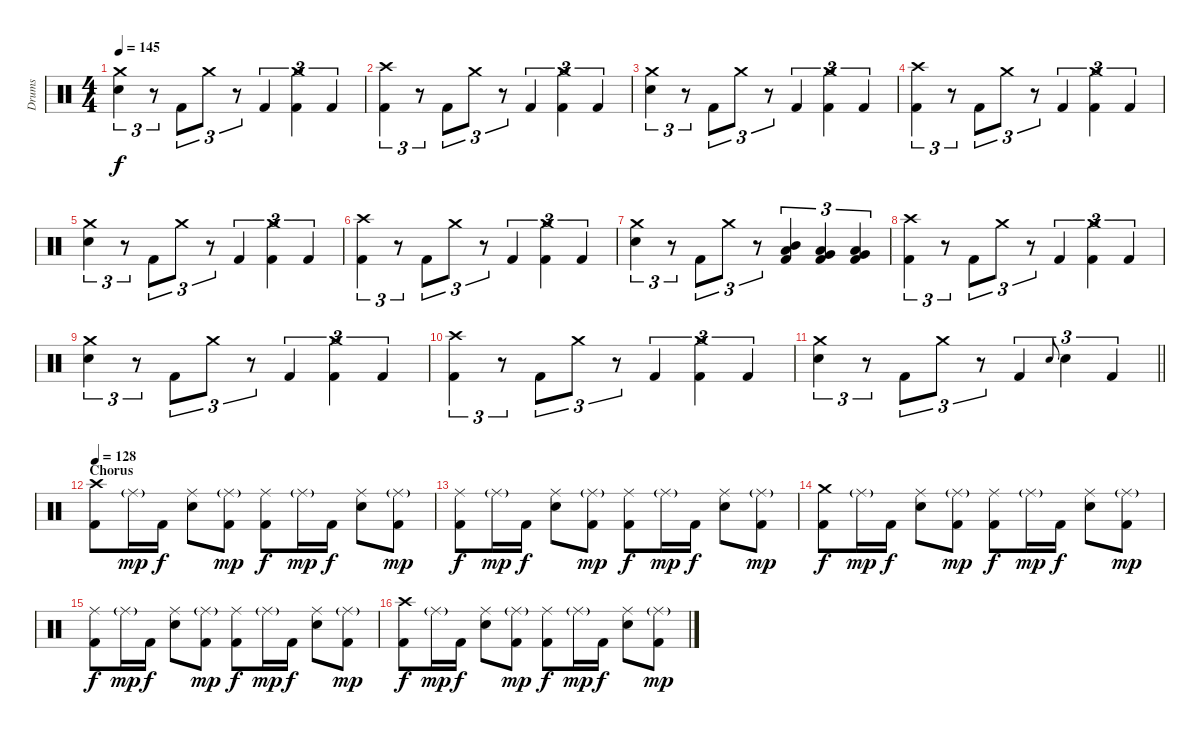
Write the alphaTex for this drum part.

\track ("Drums" "Drums") {instrument percussion}
\staff {score}
\articulation defaults
\ts (4 4)
\tempo 145
\clef neutral
\ks c
("Crash medium (hit)" "Electric Snare (hit)").4{tu (3 2) dy f} r.8{tu (3 2)} "Kick (hit) 2".8{tu (3 2)} "Crash medium (hit)".8{tu (3 2)} r.8{tu (3 2)} "Kick (hit) 2".4{tu (3 2)} ("Crash medium (hit)" "Kick (hit) 2").4{tu (3 2)} "Kick (hit) 2".4{tu (3 2)} |
("Crash high (hit)" "Kick (hit) 2").4{tu (3 2)} r.8{tu (3 2)} "Kick (hit) 2".8{tu (3 2)} "Crash medium (hit)".8{tu (3 2)} r.8{tu (3 2)} "Kick (hit) 2".4{tu (3 2)} ("Crash medium (hit)" "Kick (hit) 2").4{tu (3 2)} "Kick (hit) 2".4{tu (3 2)} |
("Crash medium (hit)" "Electric Snare (hit)").4{tu (3 2)} r.8{tu (3 2)} "Kick (hit) 2".8{tu (3 2)} "Crash medium (hit)".8{tu (3 2)} r.8{tu (3 2)} "Kick (hit) 2".4{tu (3 2)} ("Crash medium (hit)" "Kick (hit) 2").4{tu (3 2)} "Kick (hit) 2".4{tu (3 2)} |
("Crash high (hit)" "Kick (hit) 2").4{tu (3 2)} r.8{tu (3 2)} "Kick (hit) 2".8{tu (3 2)} "Crash medium (hit)".8{tu (3 2)} r.8{tu (3 2)} "Kick (hit) 2".4{tu (3 2)} ("Crash medium (hit)" "Kick (hit) 2").4{tu (3 2)} "Kick (hit) 2".4{tu (3 2)} |
("Crash medium (hit)" "Electric Snare (hit)").4{tu (3 2)} r.8{tu (3 2)} "Kick (hit) 2".8{tu (3 2)} "Crash medium (hit)".8{tu (3 2)} r.8{tu (3 2)} "Kick (hit) 2".4{tu (3 2)} ("Crash medium (hit)" "Kick (hit) 2").4{tu (3 2)} "Kick (hit) 2".4{tu (3 2)} |
("Crash high (hit)" "Kick (hit) 2").4{tu (3 2)} r.8{tu (3 2)} "Kick (hit) 2".8{tu (3 2)} "Crash medium (hit)".8{tu (3 2)} r.8{tu (3 2)} "Kick (hit) 2".4{tu (3 2)} ("Crash medium (hit)" "Kick (hit) 2").4{tu (3 2)} "Kick (hit) 2".4{tu (3 2)} |
("Crash medium (hit)" "Electric Snare (hit)").4{tu (3 2)} r.8{tu (3 2)} "Kick (hit) 2".8{tu (3 2)} "Crash medium (hit)".8{tu (3 2)} r.8{tu (3 2)} ("Mid Tom (hit)" "Low Tom (hit)" "Kick (hit) 2").4{tu (3 2)} ("Low Tom (hit)" "Very Low Tom (hit)" "Kick (hit) 2").4{tu (3 2)} ("Very Low Tom (hit)" "Low Floor Tom (hit)" "Kick (hit) 2").4{tu (3 2)} |
("Crash high (hit)" "Kick (hit) 2").4{tu (3 2)} r.8{tu (3 2)} "Kick (hit) 2".8{tu (3 2)} "Crash medium (hit)".8{tu (3 2)} r.8{tu (3 2)} "Kick (hit) 2".4{tu (3 2)} ("Crash medium (hit)" "Kick (hit) 2").4{tu (3 2)} "Kick (hit) 2".4{tu (3 2)} |
("Crash medium (hit)" "Electric Snare (hit)").4{tu (3 2)} r.8{tu (3 2)} "Kick (hit) 2".8{tu (3 2)} "Crash medium (hit)".8{tu (3 2)} r.8{tu (3 2)} "Kick (hit) 2".4{tu (3 2)} ("Crash medium (hit)" "Kick (hit) 2").4{tu (3 2)} "Kick (hit) 2".4{tu (3 2)} |
("Crash high (hit)" "Kick (hit) 2").4{tu (3 2)} r.8{tu (3 2)} "Kick (hit) 2".8{tu (3 2)} "Crash medium (hit)".8{tu (3 2)} r.8{tu (3 2)} "Kick (hit) 2".4{tu (3 2)} ("Crash medium (hit)" "Kick (hit) 2").4{tu (3 2)} "Kick (hit) 2".4{tu (3 2)} |
\barLineRight lightlight
("Crash medium (hit)" "Electric Snare (hit)").4{tu (3 2)} r.8{tu (3 2)} "Kick (hit) 2".8{tu (3 2)} "Crash medium (hit)".8{tu (3 2)} r.8{tu (3 2)} "Kick (hit) 2".4{tu (3 2)} "Electric Snare (hit)".8{gr onbeat} "Electric Snare (hit)".4{tu (3 2)} "Kick (hit) 2".4{tu (3 2)} |
\section ("" "Chorus")
\tempo 128
("Crash high (hit)" "Kick (hit) 2").8 "Ride (middle)"{g}.16{dy mp} "Kick (hit) 2".16{dy f} ("Ride (middle)" "Electric Snare (hit)").8 ("Ride (middle)"{g} "Kick (hit) 2").8{dy mp} ("Ride (middle)" "Kick (hit) 2").8{dy f} "Ride (middle)"{g}.16{dy mp} "Kick (hit) 2".16{dy f} ("Ride (middle)" "Electric Snare (hit)").8 ("Ride (middle)"{g} "Kick (hit) 2").8{dy mp} |
("Ride (middle)" "Kick (hit) 2").8{dy f} "Ride (middle)"{g}.16{dy mp} "Kick (hit) 2".16{dy f} ("Ride (middle)" "Electric Snare (hit)").8 ("Ride (middle)"{g} "Kick (hit) 2").8{dy mp} ("Ride (middle)" "Kick (hit) 2").8{dy f} "Ride (middle)"{g}.16{dy mp} "Kick (hit) 2".16{dy f} ("Ride (middle)" "Electric Snare (hit)").8 ("Ride (middle)"{g} "Kick (hit) 2").8{dy mp} |
("Crash medium (hit)" "Kick (hit) 2").8{dy f} "Ride (middle)"{g}.16{dy mp} "Kick (hit) 2".16{dy f} ("Ride (middle)" "Electric Snare (hit)").8 ("Ride (middle)"{g} "Kick (hit) 2").8{dy mp} ("Ride (middle)" "Kick (hit) 2").8{dy f} "Ride (middle)"{g}.16{dy mp} "Kick (hit) 2".16{dy f} ("Ride (middle)" "Electric Snare (hit)").8 ("Ride (middle)"{g} "Kick (hit) 2").8{dy mp} |
("Ride (middle)" "Kick (hit) 2").8{dy f} "Ride (middle)"{g}.16{dy mp} "Kick (hit) 2".16{dy f} ("Ride (middle)" "Electric Snare (hit)").8 ("Ride (middle)"{g} "Kick (hit) 2").8{dy mp} ("Ride (middle)" "Kick (hit) 2").8{dy f} "Ride (middle)"{g}.16{dy mp} "Kick (hit) 2".16{dy f} ("Ride (middle)" "Electric Snare (hit)").8 ("Ride (middle)"{g} "Kick (hit) 2").8{dy mp} |
("Crash high (hit)" "Kick (hit) 2").8{dy f} "Ride (middle)"{g}.16{dy mp} "Kick (hit) 2".16{dy f} ("Ride (middle)" "Electric Snare (hit)").8 ("Ride (middle)"{g} "Kick (hit) 2").8{dy mp} ("Ride (middle)" "Kick (hit) 2").8{dy f} "Ride (middle)"{g}.16{dy mp} "Kick (hit) 2".16{dy f} ("Ride (middle)" "Electric Snare (hit)").8 ("Ride (middle)"{g} "Kick (hit) 2").8{dy mp}
